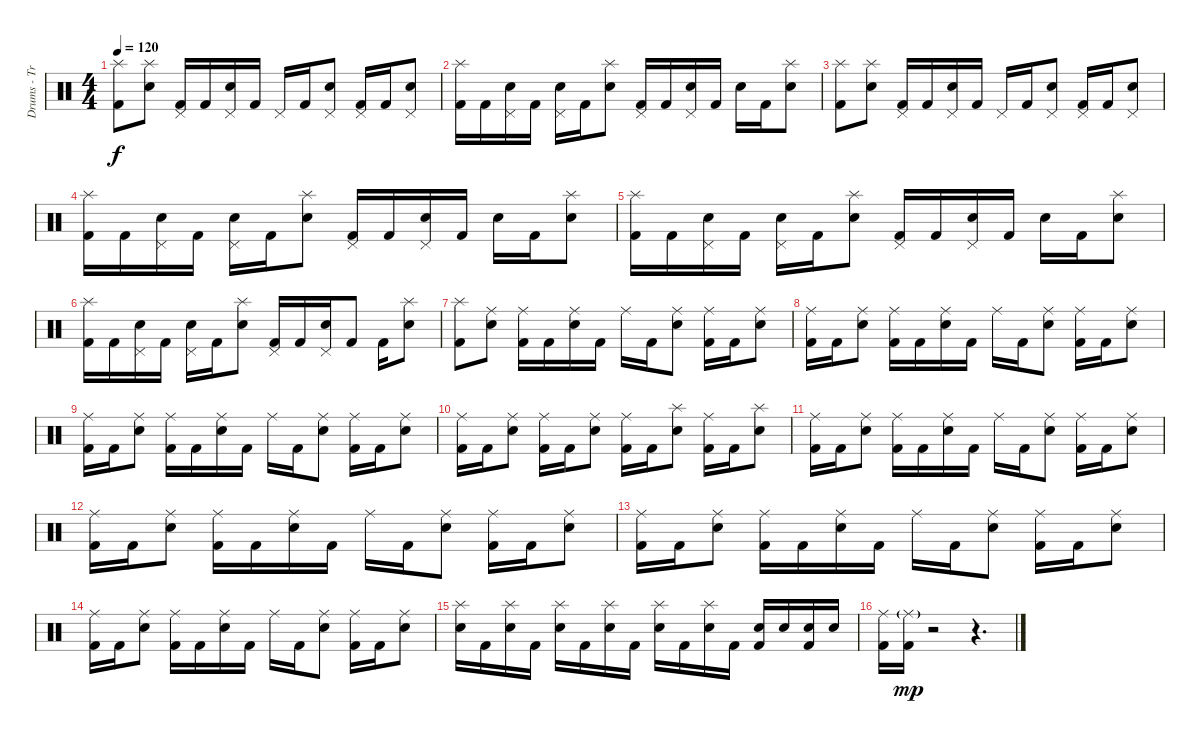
\track ("Drums - Travis Barker" "Drums - Tr") {instrument percussion}
\staff {score}
\articulation defaults
\ts (4 4)
\tempo 120
\clef neutral
\ks c
("Splash (hit)" "Kick (hit) 2").8{dy f} ("Splash (hit)" "Electric Snare (hit)").8 ("Pedal Hi-Hat (hit)" "Kick (hit) 2").16 "Kick (hit) 2".16 ("Pedal Hi-Hat (hit)" "Electric Snare (hit)").16 "Kick (hit) 2".16 "Pedal Hi-Hat (hit)".16 "Kick (hit) 2".16 ("Pedal Hi-Hat (hit)" "Electric Snare (hit)").8 ("Pedal Hi-Hat (hit)" "Kick (hit) 2").16 "Kick (hit) 2".16 ("Pedal Hi-Hat (hit)" "Electric Snare (hit)").8 |
("Splash (hit)" "Kick (hit) 2").16 "Kick (hit) 2".16 ("Pedal Hi-Hat (hit)" "Electric Snare (hit)").16 "Kick (hit) 2".16 ("Pedal Hi-Hat (hit)" "Electric Snare (hit)").16 "Kick (hit) 2".16 ("Splash (hit)" "Electric Snare (hit)").8 ("Pedal Hi-Hat (hit)" "Kick (hit) 2").16 "Kick (hit) 2".16 ("Pedal Hi-Hat (hit)" "Electric Snare (hit)").16 "Kick (hit) 2".16 "Electric Snare (hit)".16 "Kick (hit) 2".16 ("Splash (hit)" "Electric Snare (hit)").8 |
("Splash (hit)" "Kick (hit) 2").8 ("Splash (hit)" "Electric Snare (hit)").8 ("Pedal Hi-Hat (hit)" "Kick (hit) 2").16 "Kick (hit) 2".16 ("Pedal Hi-Hat (hit)" "Electric Snare (hit)").16 "Kick (hit) 2".16 "Pedal Hi-Hat (hit)".16 "Kick (hit) 2".16 ("Pedal Hi-Hat (hit)" "Electric Snare (hit)").8 ("Pedal Hi-Hat (hit)" "Kick (hit) 2").16 "Kick (hit) 2".16 ("Pedal Hi-Hat (hit)" "Electric Snare (hit)").8 |
("Splash (hit)" "Kick (hit) 2").16 "Kick (hit) 2".16 ("Pedal Hi-Hat (hit)" "Electric Snare (hit)").16 "Kick (hit) 2".16 ("Pedal Hi-Hat (hit)" "Electric Snare (hit)").16 "Kick (hit) 2".16 ("Splash (hit)" "Electric Snare (hit)").8 ("Pedal Hi-Hat (hit)" "Kick (hit) 2").16 "Kick (hit) 2".16 ("Pedal Hi-Hat (hit)" "Electric Snare (hit)").16 "Kick (hit) 2".16 "Electric Snare (hit)".16 "Kick (hit) 2".16 ("Splash (hit)" "Electric Snare (hit)").8 |
("Splash (hit)" "Kick (hit) 2").16 "Kick (hit) 2".16 ("Pedal Hi-Hat (hit)" "Electric Snare (hit)").16 "Kick (hit) 2".16 ("Pedal Hi-Hat (hit)" "Electric Snare (hit)").16 "Kick (hit) 2".16 ("Splash (hit)" "Electric Snare (hit)").8 ("Pedal Hi-Hat (hit)" "Kick (hit) 2").16 "Kick (hit) 2".16 ("Pedal Hi-Hat (hit)" "Electric Snare (hit)").16 "Kick (hit) 2".16 "Electric Snare (hit)".16 "Kick (hit) 2".16 ("Splash (hit)" "Electric Snare (hit)").8 |
("Splash (hit)" "Kick (hit) 2").16 "Kick (hit) 2".16 ("Pedal Hi-Hat (hit)" "Electric Snare (hit)").16 "Kick (hit) 2".16 ("Pedal Hi-Hat (hit)" "Electric Snare (hit)").16 "Kick (hit) 2".16 ("Splash (hit)" "Electric Snare (hit)").8 ("Pedal Hi-Hat (hit)" "Kick (hit) 2").16 "Kick (hit) 2".16 ("Pedal Hi-Hat (hit)" "Electric Snare (hit)").16 "Kick (hit) 2".8 "Kick (hit) 2".16 ("Splash (hit)" "Electric Snare (hit)").8 |
("Splash (hit)" "Kick (hit) 2").8 ("Ride (middle)" "Electric Snare (hit)").8 ("Ride (middle)" "Kick (hit) 2").16 "Kick (hit) 2".16 ("Ride (middle)" "Electric Snare (hit)").16 "Kick (hit) 2".16 "Ride (middle)".16 "Kick (hit) 2".16 ("Ride (middle)" "Electric Snare (hit)").8 ("Ride (middle)" "Kick (hit) 2").16 "Kick (hit) 2".16 ("Ride (middle)" "Electric Snare (hit)").8 |
("Ride (middle)" "Kick (hit) 2").16 "Kick (hit) 2".16 ("Ride (middle)" "Electric Snare (hit)").8 ("Ride (middle)" "Kick (hit) 2").16 "Kick (hit) 2".16 ("Ride (middle)" "Electric Snare (hit)").16 "Kick (hit) 2".16 "Ride (middle)".16 "Kick (hit) 2".16 ("Ride (middle)" "Electric Snare (hit)").8 ("Ride (middle)" "Kick (hit) 2").16 "Kick (hit) 2".16 ("Ride (middle)" "Electric Snare (hit)").8 |
("Ride (middle)" "Kick (hit) 2").16 "Kick (hit) 2".16 ("Ride (middle)" "Electric Snare (hit)").8 ("Ride (middle)" "Kick (hit) 2").16 "Kick (hit) 2".16 ("Ride (middle)" "Electric Snare (hit)").16 "Kick (hit) 2".16 "Ride (middle)".16 "Kick (hit) 2".16 ("Ride (middle)" "Electric Snare (hit)").8 ("Ride (middle)" "Kick (hit) 2").16 "Kick (hit) 2".16 ("Ride (middle)" "Electric Snare (hit)").8 |
("Ride (middle)" "Kick (hit) 2").16 "Kick (hit) 2".16 ("Ride (middle)" "Electric Snare (hit)").8 ("Ride (middle)" "Kick (hit) 2").16 "Kick (hit) 2".16 ("Ride (middle)" "Electric Snare (hit)").8 ("Ride (middle)" "Kick (hit) 2").16 "Kick (hit) 2".16 ("Splash (hit)" "Electric Snare (hit)").8 ("Ride (middle)" "Kick (hit) 2").16 "Kick (hit) 2".16 ("Splash (hit)" "Electric Snare (hit)").8 |
("Ride (middle)" "Kick (hit) 2").16 "Kick (hit) 2".16 ("Ride (middle)" "Electric Snare (hit)").8 ("Ride (middle)" "Kick (hit) 2").16 "Kick (hit) 2".16 ("Ride (middle)" "Electric Snare (hit)").16 "Kick (hit) 2".16 "Ride (middle)".16 "Kick (hit) 2".16 ("Ride (middle)" "Electric Snare (hit)").8 ("Ride (middle)" "Kick (hit) 2").16 "Kick (hit) 2".16 ("Ride (middle)" "Electric Snare (hit)").8 |
("Ride (middle)" "Kick (hit) 2").16 "Kick (hit) 2".16 ("Ride (middle)" "Electric Snare (hit)").8 ("Ride (middle)" "Kick (hit) 2").16 "Kick (hit) 2".16 ("Ride (middle)" "Electric Snare (hit)").16 "Kick (hit) 2".16 "Ride (middle)".16 "Kick (hit) 2".16 ("Ride (middle)" "Electric Snare (hit)").8 ("Ride (middle)" "Kick (hit) 2").16 "Kick (hit) 2".16 ("Ride (middle)" "Electric Snare (hit)").8 |
("Ride (middle)" "Kick (hit) 2").16 "Kick (hit) 2".16 ("Ride (middle)" "Electric Snare (hit)").8 ("Ride (middle)" "Kick (hit) 2").16 "Kick (hit) 2".16 ("Ride (middle)" "Electric Snare (hit)").16 "Kick (hit) 2".16 "Ride (middle)".16 "Kick (hit) 2".16 ("Ride (middle)" "Electric Snare (hit)").8 ("Ride (middle)" "Kick (hit) 2").16 "Kick (hit) 2".16 ("Ride (middle)" "Electric Snare (hit)").8 |
("Ride (middle)" "Kick (hit) 2").16 "Kick (hit) 2".16 ("Ride (middle)" "Electric Snare (hit)").8 ("Ride (middle)" "Kick (hit) 2").16 "Kick (hit) 2".16 ("Ride (middle)" "Electric Snare (hit)").16 "Kick (hit) 2".16 "Ride (middle)".16 "Kick (hit) 2".16 ("Ride (middle)" "Electric Snare (hit)").8 ("Ride (middle)" "Kick (hit) 2").16 "Kick (hit) 2".16 ("Ride (middle)" "Electric Snare (hit)").8 |
("Splash (hit)" "Electric Snare (hit)").16 "Kick (hit) 2".16 ("Splash (hit)" "Electric Snare (hit)").16 "Kick (hit) 2".16 ("Splash (hit)" "Electric Snare (hit)").16 "Kick (hit) 2".16 ("Splash (hit)" "Electric Snare (hit)").16 "Kick (hit) 2".16 ("Splash (hit)" "Electric Snare (hit)").16 "Kick (hit) 2".16 ("Splash (hit)" "Electric Snare (hit)").16 "Kick (hit) 2".16 ("Electric Snare (hit)" "Kick (hit) 2").16 "Electric Snare (hit)".16 ("Electric Snare (hit)" "Kick (hit) 2").16 "Electric Snare (hit)".16 |
("Ride (middle)" "Kick (hit) 2").16 ("Ride (middle)"{g} "Kick (hit) 2").16{dy mp} r.2 r.4{d}
